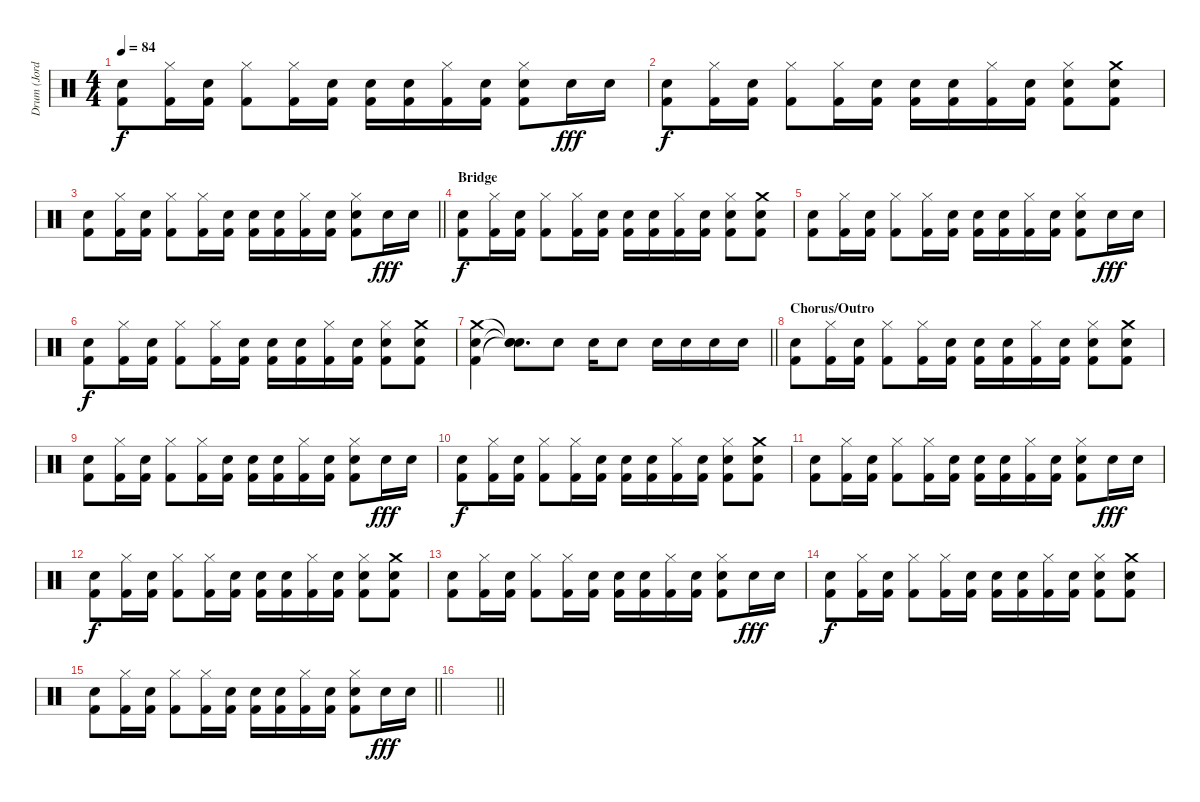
\track ("Drum (Jordan)" "Drum (Jord") {instrument percussion}
\staff {score}
\articulation defaults
\ts (4 4)
\tempo 84
\clef neutral
\ks c
("Kick (hit) 2" "Electric Snare (hit)").8{dy f} ("Kick (hit) 2" "Hi-Hat (closed)").16 ("Kick (hit) 2" "Electric Snare (hit)").16 ("Kick (hit) 2" "Hi-Hat (closed)").8 ("Kick (hit) 2" "Hi-Hat (closed)").16 ("Kick (hit) 2" "Electric Snare (hit)").16 ("Kick (hit) 2" "Electric Snare (hit)").16 ("Kick (hit) 2" "Electric Snare (hit)").16 ("Kick (hit) 2" "Hi-Hat (closed)").16 ("Kick (hit) 2" "Electric Snare (hit)").16 ("Kick (hit) 2" "Electric Snare (hit)" "Hi-Hat (closed)").8 "Electric Snare (hit)".16{dy fff} "Electric Snare (hit)".16 |
("Kick (hit) 2" "Electric Snare (hit)").8{dy f} ("Kick (hit) 2" "Hi-Hat (closed)").16 ("Kick (hit) 2" "Electric Snare (hit)").16 ("Kick (hit) 2" "Hi-Hat (closed)").8 ("Kick (hit) 2" "Hi-Hat (closed)").16 ("Kick (hit) 2" "Electric Snare (hit)").16 ("Kick (hit) 2" "Electric Snare (hit)").16 ("Kick (hit) 2" "Electric Snare (hit)").16 ("Kick (hit) 2" "Hi-Hat (closed)").16 ("Kick (hit) 2" "Electric Snare (hit)").16 ("Kick (hit) 2" "Electric Snare (hit)" "Hi-Hat (closed)").8 ("Kick (hit) 2" "Electric Snare (hit)" "Crash medium (hit)").8 |
\barLineRight lightlight
("Kick (hit) 2" "Electric Snare (hit)").8 ("Kick (hit) 2" "Hi-Hat (closed)").16 ("Kick (hit) 2" "Electric Snare (hit)").16 ("Kick (hit) 2" "Hi-Hat (closed)").8 ("Kick (hit) 2" "Hi-Hat (closed)").16 ("Kick (hit) 2" "Electric Snare (hit)").16 ("Kick (hit) 2" "Electric Snare (hit)").16 ("Kick (hit) 2" "Electric Snare (hit)").16 ("Kick (hit) 2" "Hi-Hat (closed)").16 ("Kick (hit) 2" "Electric Snare (hit)").16 ("Kick (hit) 2" "Electric Snare (hit)" "Hi-Hat (closed)").8 "Electric Snare (hit)".16{dy fff} "Electric Snare (hit)".16 |
\section ("" "Bridge")
("Kick (hit) 2" "Electric Snare (hit)").8{dy f} ("Kick (hit) 2" "Hi-Hat (closed)").16 ("Kick (hit) 2" "Electric Snare (hit)").16 ("Kick (hit) 2" "Hi-Hat (closed)").8 ("Kick (hit) 2" "Hi-Hat (closed)").16 ("Kick (hit) 2" "Electric Snare (hit)").16 ("Kick (hit) 2" "Electric Snare (hit)").16 ("Kick (hit) 2" "Electric Snare (hit)").16 ("Kick (hit) 2" "Hi-Hat (closed)").16 ("Kick (hit) 2" "Electric Snare (hit)").16 ("Kick (hit) 2" "Electric Snare (hit)" "Hi-Hat (closed)").8 ("Kick (hit) 2" "Electric Snare (hit)" "Crash medium (hit)").8 |
("Kick (hit) 2" "Electric Snare (hit)").8 ("Kick (hit) 2" "Hi-Hat (closed)").16 ("Kick (hit) 2" "Electric Snare (hit)").16 ("Kick (hit) 2" "Hi-Hat (closed)").8 ("Kick (hit) 2" "Hi-Hat (closed)").16 ("Kick (hit) 2" "Electric Snare (hit)").16 ("Kick (hit) 2" "Electric Snare (hit)").16 ("Kick (hit) 2" "Electric Snare (hit)").16 ("Kick (hit) 2" "Hi-Hat (closed)").16 ("Kick (hit) 2" "Electric Snare (hit)").16 ("Kick (hit) 2" "Electric Snare (hit)" "Hi-Hat (closed)").8 "Electric Snare (hit)".16{dy fff} "Electric Snare (hit)".16 |
("Kick (hit) 2" "Electric Snare (hit)").8{dy f} ("Kick (hit) 2" "Hi-Hat (closed)").16 ("Kick (hit) 2" "Electric Snare (hit)").16 ("Kick (hit) 2" "Hi-Hat (closed)").8 ("Kick (hit) 2" "Hi-Hat (closed)").16 ("Kick (hit) 2" "Electric Snare (hit)").16 ("Kick (hit) 2" "Electric Snare (hit)").16 ("Kick (hit) 2" "Electric Snare (hit)").16 ("Kick (hit) 2" "Hi-Hat (closed)").16 ("Kick (hit) 2" "Electric Snare (hit)").16 ("Kick (hit) 2" "Electric Snare (hit)" "Hi-Hat (closed)").8 ("Kick (hit) 2" "Electric Snare (hit)" "Crash medium (hit)").8 |
\barLineRight lightlight
("Kick (hit) 2" "Electric Snare (hit)" "Crash medium (hit)").4 ("Snare (hit)"{t} "Snare (hit)"{t} "Snare (hit)"{t}).8{d} "Electric Snare (hit)".8 "Snare (hit) 2".16 "Electric Snare (hit)".8 "Snare (hit) 2".16 "Snare (hit) 2".16 "Snare (hit) 2".16 "Snare (hit) 2".16 |
\section ("" "Chorus/Outro")
("Kick (hit) 2" "Electric Snare (hit)").8 ("Kick (hit) 2" "Hi-Hat (closed)").16 ("Kick (hit) 2" "Electric Snare (hit)").16 ("Kick (hit) 2" "Hi-Hat (closed)").8 ("Kick (hit) 2" "Hi-Hat (closed)").16 ("Kick (hit) 2" "Electric Snare (hit)").16 ("Kick (hit) 2" "Electric Snare (hit)").16 ("Kick (hit) 2" "Electric Snare (hit)").16 ("Kick (hit) 2" "Hi-Hat (closed)").16 ("Kick (hit) 2" "Electric Snare (hit)").16 ("Kick (hit) 2" "Electric Snare (hit)" "Hi-Hat (closed)").8 ("Kick (hit) 2" "Electric Snare (hit)" "Crash medium (hit)").8 |
("Kick (hit) 2" "Electric Snare (hit)").8 ("Kick (hit) 2" "Hi-Hat (closed)").16 ("Kick (hit) 2" "Electric Snare (hit)").16 ("Kick (hit) 2" "Hi-Hat (closed)").8 ("Kick (hit) 2" "Hi-Hat (closed)").16 ("Kick (hit) 2" "Electric Snare (hit)").16 ("Kick (hit) 2" "Electric Snare (hit)").16 ("Kick (hit) 2" "Electric Snare (hit)").16 ("Kick (hit) 2" "Hi-Hat (closed)").16 ("Kick (hit) 2" "Electric Snare (hit)").16 ("Kick (hit) 2" "Electric Snare (hit)" "Hi-Hat (closed)").8 "Electric Snare (hit)".16{dy fff} "Electric Snare (hit)".16 |
("Kick (hit) 2" "Electric Snare (hit)").8{dy f} ("Kick (hit) 2" "Hi-Hat (closed)").16 ("Kick (hit) 2" "Electric Snare (hit)").16 ("Kick (hit) 2" "Hi-Hat (closed)").8 ("Kick (hit) 2" "Hi-Hat (closed)").16 ("Kick (hit) 2" "Electric Snare (hit)").16 ("Kick (hit) 2" "Electric Snare (hit)").16 ("Kick (hit) 2" "Electric Snare (hit)").16 ("Kick (hit) 2" "Hi-Hat (closed)").16 ("Kick (hit) 2" "Electric Snare (hit)").16 ("Kick (hit) 2" "Electric Snare (hit)" "Hi-Hat (closed)").8 ("Kick (hit) 2" "Electric Snare (hit)" "Crash medium (hit)").8 |
("Kick (hit) 2" "Electric Snare (hit)").8 ("Kick (hit) 2" "Hi-Hat (closed)").16 ("Kick (hit) 2" "Electric Snare (hit)").16 ("Kick (hit) 2" "Hi-Hat (closed)").8 ("Kick (hit) 2" "Hi-Hat (closed)").16 ("Kick (hit) 2" "Electric Snare (hit)").16 ("Kick (hit) 2" "Electric Snare (hit)").16 ("Kick (hit) 2" "Electric Snare (hit)").16 ("Kick (hit) 2" "Hi-Hat (closed)").16 ("Kick (hit) 2" "Electric Snare (hit)").16 ("Kick (hit) 2" "Electric Snare (hit)" "Hi-Hat (closed)").8 "Electric Snare (hit)".16{dy fff} "Electric Snare (hit)".16 |
("Kick (hit) 2" "Electric Snare (hit)").8{dy f} ("Kick (hit) 2" "Hi-Hat (closed)").16 ("Kick (hit) 2" "Electric Snare (hit)").16 ("Kick (hit) 2" "Hi-Hat (closed)").8 ("Kick (hit) 2" "Hi-Hat (closed)").16 ("Kick (hit) 2" "Electric Snare (hit)").16 ("Kick (hit) 2" "Electric Snare (hit)").16 ("Kick (hit) 2" "Electric Snare (hit)").16 ("Kick (hit) 2" "Hi-Hat (closed)").16 ("Kick (hit) 2" "Electric Snare (hit)").16 ("Kick (hit) 2" "Electric Snare (hit)" "Hi-Hat (closed)").8 ("Kick (hit) 2" "Electric Snare (hit)" "Crash medium (hit)").8 |
("Kick (hit) 2" "Electric Snare (hit)").8 ("Kick (hit) 2" "Hi-Hat (closed)").16 ("Kick (hit) 2" "Electric Snare (hit)").16 ("Kick (hit) 2" "Hi-Hat (closed)").8 ("Kick (hit) 2" "Hi-Hat (closed)").16 ("Kick (hit) 2" "Electric Snare (hit)").16 ("Kick (hit) 2" "Electric Snare (hit)").16 ("Kick (hit) 2" "Electric Snare (hit)").16 ("Kick (hit) 2" "Hi-Hat (closed)").16 ("Kick (hit) 2" "Electric Snare (hit)").16 ("Kick (hit) 2" "Electric Snare (hit)" "Hi-Hat (closed)").8 "Electric Snare (hit)".16{dy fff} "Electric Snare (hit)".16 |
("Kick (hit) 2" "Electric Snare (hit)").8{dy f} ("Kick (hit) 2" "Hi-Hat (closed)").16 ("Kick (hit) 2" "Electric Snare (hit)").16 ("Kick (hit) 2" "Hi-Hat (closed)").8 ("Kick (hit) 2" "Hi-Hat (closed)").16 ("Kick (hit) 2" "Electric Snare (hit)").16 ("Kick (hit) 2" "Electric Snare (hit)").16 ("Kick (hit) 2" "Electric Snare (hit)").16 ("Kick (hit) 2" "Hi-Hat (closed)").16 ("Kick (hit) 2" "Electric Snare (hit)").16 ("Kick (hit) 2" "Electric Snare (hit)" "Hi-Hat (closed)").8 ("Kick (hit) 2" "Electric Snare (hit)" "Crash medium (hit)").8 |
\barLineRight lightlight
("Kick (hit) 2" "Electric Snare (hit)").8 ("Kick (hit) 2" "Hi-Hat (closed)").16 ("Kick (hit) 2" "Electric Snare (hit)").16 ("Kick (hit) 2" "Hi-Hat (closed)").8 ("Kick (hit) 2" "Hi-Hat (closed)").16 ("Kick (hit) 2" "Electric Snare (hit)").16 ("Kick (hit) 2" "Electric Snare (hit)").16 ("Kick (hit) 2" "Electric Snare (hit)").16 ("Kick (hit) 2" "Hi-Hat (closed)").16 ("Kick (hit) 2" "Electric Snare (hit)").16 ("Kick (hit) 2" "Electric Snare (hit)" "Hi-Hat (closed)").8 "Electric Snare (hit)".16{dy fff} "Electric Snare (hit)".16 |
\barLineRight lightlight
